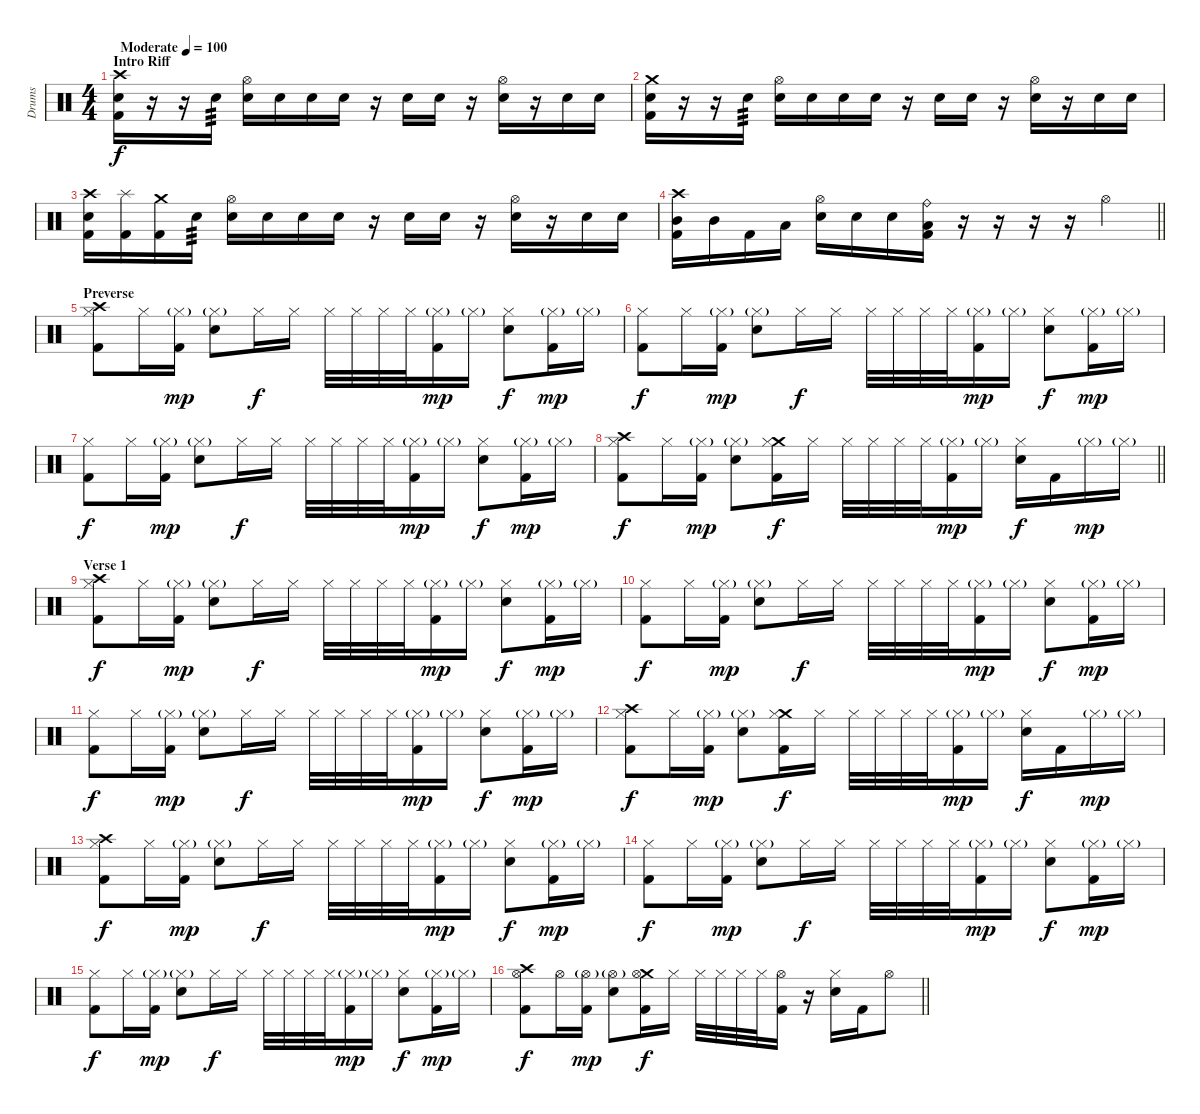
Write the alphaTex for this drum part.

\track ("Drums" "Drums") {instrument percussion}
\staff {score}
\articulation defaults
\ts (4 4)
\section ("" "Intro Riff")
\tempo (100 "Moderate")
\clef neutral
\ks c
("Crash high (hit)" "Electric Snare (hit)" "Kick (hit) 2").16{dy f} r.16 r.16 "Electric Snare (hit)".16{tp 3} ("Hi-Hat (open)" "Electric Snare (hit)").16 "Electric Snare (hit)".16 "Electric Snare (hit)".16 "Electric Snare (hit)".16 r.16 "Electric Snare (hit)".16 "Electric Snare (hit)".16 r.16 ("Hi-Hat (open)" "Electric Snare (hit)").16 r.16 "Electric Snare (hit)".16 "Electric Snare (hit)".16 |
("Crash medium (hit)" "Electric Snare (hit)" "Kick (hit) 2").16 r.16 r.16 "Electric Snare (hit)".16{tp 3} ("Hi-Hat (open)" "Electric Snare (hit)").16 "Electric Snare (hit)".16 "Electric Snare (hit)".16 "Electric Snare (hit)".16 r.16 "Electric Snare (hit)".16 "Electric Snare (hit)".16 r.16 ("Hi-Hat (open)" "Electric Snare (hit)").16 r.16 "Electric Snare (hit)".16 "Electric Snare (hit)".16 |
("Crash high (hit)" "Electric Snare (hit)" "Kick (hit) 2").16 ("Splash (hit)" "Kick (hit) 2").16 ("Crash medium (hit)" "Kick (hit) 2").16 "Electric Snare (hit)".16{tp 3} ("Hi-Hat (open)" "Electric Snare (hit)").16 "Electric Snare (hit)".16 "Electric Snare (hit)".16 "Electric Snare (hit)".16 r.16 "Electric Snare (hit)".16 "Electric Snare (hit)".16 r.16 ("Hi-Hat (open)" "Electric Snare (hit)").16 r.16 "Electric Snare (hit)".16 "Electric Snare (hit)".16 |
\barLineRight lightlight
("Crash high (hit)" "Mid Tom (hit)" "Kick (hit) 2").16 "Mid Tom (hit)".16 "Kick (hit) 2".16 "Low Tom (hit)".16 ("Hi-Hat (open)" "Snare (hit) 2").16 "Snare (hit) 2".16 "Snare (hit) 2".16 ("Ride (bell)" "Low Floor Tom (hit)" "Kick (hit) 2").16 r.16 r.16 r.16 r.16 "Hi-Hat (open)".4 |
\section ("" "Preverse")
("Crash high (hit)" "Hi-Hat (closed)" "Kick (hit) 2").8 "Hi-Hat (closed)".16 ("Hi-Hat (closed)"{g} "Kick (hit) 2").16{dy mp} ("Hi-Hat (closed)"{g} "Snare (hit) 2").8 "Hi-Hat (closed)".16{dy f} "Hi-Hat (closed)".16 "Hi-Hat (closed)".32 "Hi-Hat (closed)".32 "Hi-Hat (closed)".32 "Hi-Hat (closed)".32 ("Hi-Hat (closed)"{g} "Kick (hit) 2").16{dy mp} "Hi-Hat (closed)"{g}.16 ("Hi-Hat (closed)" "Snare (hit) 2").8{dy f} ("Hi-Hat (closed)"{g} "Kick (hit) 2").16{dy mp} "Hi-Hat (closed)"{g}.16 |
("Hi-Hat (closed)" "Kick (hit) 2").8{dy f} "Hi-Hat (closed)".16 ("Hi-Hat (closed)"{g} "Kick (hit) 2").16{dy mp} ("Hi-Hat (closed)"{g} "Snare (hit) 2").8 "Hi-Hat (closed)".16{dy f} "Hi-Hat (closed)".16 "Hi-Hat (closed)".32 "Hi-Hat (closed)".32 "Hi-Hat (closed)".32 "Hi-Hat (closed)".32 ("Hi-Hat (closed)"{g} "Kick (hit) 2").16{dy mp} "Hi-Hat (closed)"{g}.16 ("Hi-Hat (closed)" "Snare (hit) 2").8{dy f} ("Hi-Hat (closed)"{g} "Kick (hit) 2").16{dy mp} "Hi-Hat (closed)"{g}.16 |
("Hi-Hat (closed)" "Kick (hit) 2").8{dy f} "Hi-Hat (closed)".16 ("Hi-Hat (closed)"{g} "Kick (hit) 2").16{dy mp} ("Hi-Hat (closed)"{g} "Snare (hit) 2").8 "Hi-Hat (closed)".16{dy f} "Hi-Hat (closed)".16 "Hi-Hat (closed)".32 "Hi-Hat (closed)".32 "Hi-Hat (closed)".32 "Hi-Hat (closed)".32 ("Hi-Hat (closed)"{g} "Kick (hit) 2").16{dy mp} "Hi-Hat (closed)"{g}.16 ("Hi-Hat (closed)" "Snare (hit) 2").8{dy f} ("Hi-Hat (closed)"{g} "Kick (hit) 2").16{dy mp} "Hi-Hat (closed)"{g}.16 |
\barLineRight lightlight
("Crash high (hit)" "Hi-Hat (closed)" "Kick (hit) 2").8{dy f} "Hi-Hat (closed)".16 ("Hi-Hat (closed)"{g} "Kick (hit) 2").16{dy mp} ("Hi-Hat (closed)"{g} "Snare (hit) 2").8 ("Crash medium (hit)" "Hi-Hat (closed)" "Kick (hit) 2").16{dy f} "Hi-Hat (closed)".16 "Hi-Hat (closed)".32 "Hi-Hat (closed)".32 "Hi-Hat (closed)".32 "Hi-Hat (closed)".32 ("Hi-Hat (closed)"{g} "Kick (hit) 2").16{dy mp} "Hi-Hat (closed)"{g}.16 ("Hi-Hat (closed)" "Snare (hit) 2").16{dy f} "Kick (hit) 2".16 "Hi-Hat (closed)"{g}.16{dy mp} "Hi-Hat (closed)"{g}.16 |
\section ("" "Verse 1")
("Crash high (hit)" "Hi-Hat (closed)" "Kick (hit) 2").8{dy f} "Hi-Hat (closed)".16 ("Hi-Hat (closed)"{g} "Kick (hit) 2").16{dy mp} ("Hi-Hat (closed)"{g} "Snare (hit) 2").8 "Hi-Hat (closed)".16{dy f} "Hi-Hat (closed)".16 "Hi-Hat (closed)".32 "Hi-Hat (closed)".32 "Hi-Hat (closed)".32 "Hi-Hat (closed)".32 ("Hi-Hat (closed)"{g} "Kick (hit) 2").16{dy mp} "Hi-Hat (closed)"{g}.16 ("Hi-Hat (closed)" "Snare (hit) 2").8{dy f} ("Hi-Hat (closed)"{g} "Kick (hit) 2").16{dy mp} "Hi-Hat (closed)"{g}.16 |
("Hi-Hat (closed)" "Kick (hit) 2").8{dy f} "Hi-Hat (closed)".16 ("Hi-Hat (closed)"{g} "Kick (hit) 2").16{dy mp} ("Hi-Hat (closed)"{g} "Snare (hit) 2").8 "Hi-Hat (closed)".16{dy f} "Hi-Hat (closed)".16 "Hi-Hat (closed)".32 "Hi-Hat (closed)".32 "Hi-Hat (closed)".32 "Hi-Hat (closed)".32 ("Hi-Hat (closed)"{g} "Kick (hit) 2").16{dy mp} "Hi-Hat (closed)"{g}.16 ("Hi-Hat (closed)" "Snare (hit) 2").8{dy f} ("Hi-Hat (closed)"{g} "Kick (hit) 2").16{dy mp} "Hi-Hat (closed)"{g}.16 |
("Hi-Hat (closed)" "Kick (hit) 2").8{dy f} "Hi-Hat (closed)".16 ("Hi-Hat (closed)"{g} "Kick (hit) 2").16{dy mp} ("Hi-Hat (closed)"{g} "Snare (hit) 2").8 "Hi-Hat (closed)".16{dy f} "Hi-Hat (closed)".16 "Hi-Hat (closed)".32 "Hi-Hat (closed)".32 "Hi-Hat (closed)".32 "Hi-Hat (closed)".32 ("Hi-Hat (closed)"{g} "Kick (hit) 2").16{dy mp} "Hi-Hat (closed)"{g}.16 ("Hi-Hat (closed)" "Snare (hit) 2").8{dy f} ("Hi-Hat (closed)"{g} "Kick (hit) 2").16{dy mp} "Hi-Hat (closed)"{g}.16 |
("Crash high (hit)" "Hi-Hat (closed)" "Kick (hit) 2").8{dy f} "Hi-Hat (closed)".16 ("Hi-Hat (closed)"{g} "Kick (hit) 2").16{dy mp} ("Hi-Hat (closed)"{g} "Snare (hit) 2").8 ("Crash medium (hit)" "Hi-Hat (closed)" "Kick (hit) 2").16{dy f} "Hi-Hat (closed)".16 "Hi-Hat (closed)".32 "Hi-Hat (closed)".32 "Hi-Hat (closed)".32 "Hi-Hat (closed)".32 ("Hi-Hat (closed)"{g} "Kick (hit) 2").16{dy mp} "Hi-Hat (closed)"{g}.16 ("Hi-Hat (closed)" "Snare (hit) 2").16{dy f} "Kick (hit) 2".16 "Hi-Hat (closed)"{g}.16{dy mp} "Hi-Hat (closed)"{g}.16 |
("Crash high (hit)" "Hi-Hat (closed)" "Kick (hit) 2").8{dy f} "Hi-Hat (closed)".16 ("Hi-Hat (closed)"{g} "Kick (hit) 2").16{dy mp} ("Hi-Hat (closed)"{g} "Snare (hit) 2").8 "Hi-Hat (closed)".16{dy f} "Hi-Hat (closed)".16 "Hi-Hat (closed)".32 "Hi-Hat (closed)".32 "Hi-Hat (closed)".32 "Hi-Hat (closed)".32 ("Hi-Hat (closed)"{g} "Kick (hit) 2").16{dy mp} "Hi-Hat (closed)"{g}.16 ("Hi-Hat (closed)" "Snare (hit) 2").8{dy f} ("Hi-Hat (closed)"{g} "Kick (hit) 2").16{dy mp} "Hi-Hat (closed)"{g}.16 |
("Hi-Hat (closed)" "Kick (hit) 2").8{dy f} "Hi-Hat (closed)".16 ("Hi-Hat (closed)"{g} "Kick (hit) 2").16{dy mp} ("Hi-Hat (closed)"{g} "Snare (hit) 2").8 "Hi-Hat (closed)".16{dy f} "Hi-Hat (closed)".16 "Hi-Hat (closed)".32 "Hi-Hat (closed)".32 "Hi-Hat (closed)".32 "Hi-Hat (closed)".32 ("Hi-Hat (closed)"{g} "Kick (hit) 2").16{dy mp} "Hi-Hat (closed)"{g}.16 ("Hi-Hat (closed)" "Snare (hit) 2").8{dy f} ("Hi-Hat (closed)"{g} "Kick (hit) 2").16{dy mp} "Hi-Hat (closed)"{g}.16 |
("Hi-Hat (closed)" "Kick (hit) 2").8{dy f} "Hi-Hat (closed)".16 ("Hi-Hat (closed)"{g} "Kick (hit) 2").16{dy mp} ("Hi-Hat (closed)"{g} "Snare (hit) 2").8 "Hi-Hat (closed)".16{dy f} "Hi-Hat (closed)".16 "Hi-Hat (closed)".32 "Hi-Hat (closed)".32 "Hi-Hat (closed)".32 "Hi-Hat (closed)".32 ("Hi-Hat (closed)"{g} "Kick (hit) 2").16{dy mp} "Hi-Hat (closed)"{g}.16 ("Hi-Hat (closed)" "Snare (hit) 2").8{dy f} ("Hi-Hat (closed)"{g} "Kick (hit) 2").16{dy mp} "Hi-Hat (closed)"{g}.16 |
\barLineRight lightlight
("Crash high (hit)" "Hi-Hat (open)" "Kick (hit) 2").8{dy f} "Hi-Hat (open)".16 ("Hi-Hat (open)"{g} "Kick (hit) 2").16{dy mp} ("Hi-Hat (open)"{g} "Snare (hit) 2").8 ("Crash medium (hit)" "Hi-Hat (open)" "Kick (hit) 2").16{dy f} "Hi-Hat (closed)".16 "Hi-Hat (closed)".32 "Hi-Hat (closed)".32 "Hi-Hat (closed)".32 "Hi-Hat (closed)".32 ("Hi-Hat (open)" "Kick (hit) 2").16 r.16 ("Hi-Hat (closed)" "Snare (hit) 2").16 "Kick (hit) 2".16 "Hi-Hat (open)".8
